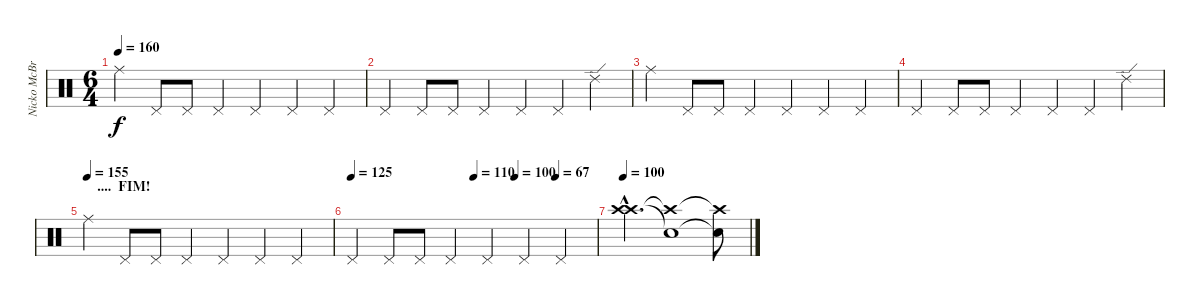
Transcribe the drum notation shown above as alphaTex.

\track ("Nicko McBrain" "Nicko McBr") {instrument percussion}
\staff {score}
\articulation defaults
\ts (6 4)
\tempo 160
\clef neutral
\ks c "Ride (middle)".4{dy f balance 16} "Pedal Hi-Hat (hit)".8{balance 8} "Pedal Hi-Hat (hit)".8 "Pedal Hi-Hat (hit)".4 "Pedal Hi-Hat (hit)".4 "Pedal Hi-Hat (hit)".4 "Pedal Hi-Hat (hit)".4
|
"Pedal Hi-Hat (hit)".4 "Pedal Hi-Hat (hit)".8 "Pedal Hi-Hat (hit)".8 "Pedal Hi-Hat (hit)".4 "Pedal Hi-Hat (hit)".4 "Pedal Hi-Hat (hit)".4 "Ride (edge) 2".4 |
"Ride (middle)".4{balance 16} "Pedal Hi-Hat (hit)".8{balance 8} "Pedal Hi-Hat (hit)".8 "Pedal Hi-Hat (hit)".4 "Pedal Hi-Hat (hit)".4 "Pedal Hi-Hat (hit)".4 "Pedal Hi-Hat (hit)".4 |
"Pedal Hi-Hat (hit)".4 "Pedal Hi-Hat (hit)".8 "Pedal Hi-Hat (hit)".8 "Pedal Hi-Hat (hit)".4 "Pedal Hi-Hat (hit)".4 "Pedal Hi-Hat (hit)".4 "Ride (edge) 2".4 |
\section ("" "    ....  FIM!      ")
\tempo (155)
"Ride (middle)".4{balance 16} "Pedal Hi-Hat (hit)".8{balance 8} "Pedal Hi-Hat (hit)".8 "Pedal Hi-Hat (hit)".4 "Pedal Hi-Hat (hit)".4 "Pedal Hi-Hat (hit)".4 "Pedal Hi-Hat (hit)".4 |
\tempo 125
\tempo (110 0.5)
\tempo (100 0.6666666666666666)
\tempo (67 0.8333333333333334)
"Pedal Hi-Hat (hit)".4 "Pedal Hi-Hat (hit)".8 "Pedal Hi-Hat (hit)".8 "Pedal Hi-Hat (hit)".4 "Pedal Hi-Hat (hit)".4 "Pedal Hi-Hat (hit)".4 "Pedal Hi-Hat (hit)".4 |
\tempo 100
("Crash high (hit)"{hac} "Crash high (hit)"{hac}).4{d volume 10} ("Crash high (hit)"{t} "Snare (hit)"{t}).1 ("Crash high (hit)"{t} "Snare (hit)"{t}).8
